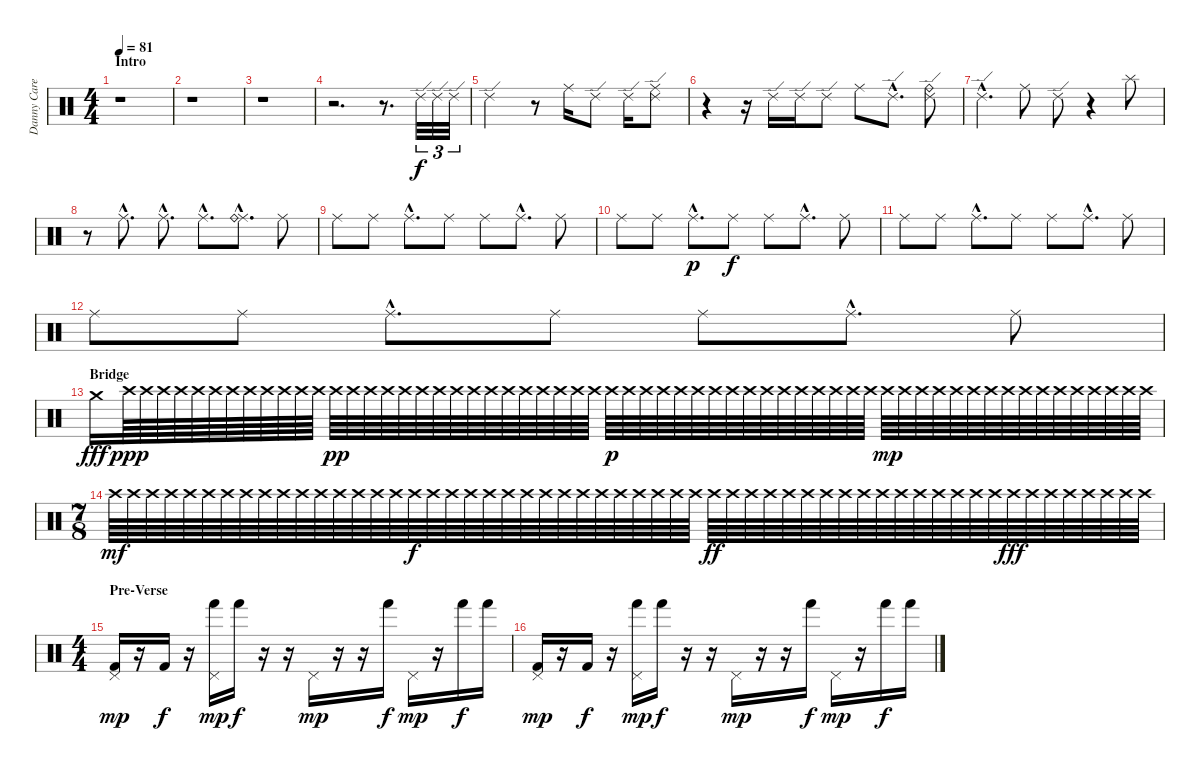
\track ("Danny Carey" "Danny Care") {instrument percussion}
\staff {score}
\articulation defaults
\ts (4 4)
\section ("" "Intro")
\tempo 81
\clef neutral
\ks c
r.1{dy f} |
r.1 |
r.1 |
r.2{d} r.8{d} "Ride (edge) 2".32{tu (3 2)} "Ride (edge) 2".32{tu (3 2)} "Ride (edge) 2".32{tu (3 2)} |
"Ride (edge) 2".2 r.8 "Ride (middle)".16 "Ride (edge) 2".8 "Ride (edge) 2".16 ("Ride (edge) 2" "Ride (middle)").8 |
r.4 r.16 "Ride (edge) 2".16 "Ride (edge) 2".16 "Ride (edge) 2".8 "Ride (middle)".8 "Ride (edge) 2"{hac}.8{d} ("Ride (edge) 2" "Ride (bell)").8 |
"Ride (edge) 2"{hac}.4{d} "Ride (middle)".8 "Ride (edge) 2".8 r.4 "Splash (hit)".8 |
r.8 "Ride (middle)"{hac}.8{d} "Ride (middle)"{hac}.8{d} "Ride (middle)"{hac}.8{d} ("Ride (middle)"{hac} "Ride (bell)"{hac}).8{d} "Ride (middle)".8 |
"Ride (middle)".8 "Ride (middle)".8 "Ride (middle)"{hac}.8{d} "Ride (middle)".8 "Ride (middle)".8 "Ride (middle)"{hac}.8{d} "Ride (middle)".8 |
"Ride (middle)".8 "Ride (middle)".8 "Ride (middle)"{hac}.8{d dy p} "Ride (middle)".8{dy f} "Ride (middle)".8 "Ride (middle)"{hac}.8{d} "Ride (middle)".8 |
"Ride (middle)".8 "Ride (middle)".8 "Ride (middle)"{hac}.8{d} "Ride (middle)".8 "Ride (middle)".8 "Ride (middle)"{hac}.8{d} "Ride (middle)".8 |
"Ride (middle)".8 "Ride (middle)".8 "Ride (middle)"{hac}.8{d} "Ride (middle)".8 "Ride (middle)".8 "Ride (middle)"{hac}.8{d} "Ride (middle)".8 |
\section ("" "Bridge")
"Crash medium (hit)".16{dy fff} "Crash high (hit)".64{dy ppp} "Crash high (hit)".64 "Crash high (hit)".64 "Crash high (hit)".64 "Crash high (hit)".64 "Crash high (hit)".64 "Crash high (hit)".64 "Crash high (hit)".64 "Crash high (hit)".64 "Crash high (hit)".64 "Crash high (hit)".64 "Crash high (hit)".64 "Crash high (hit)".64{dy pp} "Crash high (hit)".64 "Crash high (hit)".64 "Crash high (hit)".64 "Crash high (hit)".64 "Crash high (hit)".64 "Crash high (hit)".64 "Crash high (hit)".64 "Crash high (hit)".64 "Crash high (hit)".64 "Crash high (hit)".64 "Crash high (hit)".64 "Crash high (hit)".64 "Crash high (hit)".64 "Crash high (hit)".64 "Crash high (hit)".64 "Crash high (hit)".64{dy p} "Crash high (hit)".64 "Crash high (hit)".64 "Crash high (hit)".64 "Crash high (hit)".64 "Crash high (hit)".64 "Crash high (hit)".64 "Crash high (hit)".64 "Crash high (hit)".64 "Crash high (hit)".64 "Crash high (hit)".64 "Crash high (hit)".64 "Crash high (hit)".64 "Crash high (hit)".64 "Crash high (hit)".64 "Crash high (hit)".64 "Crash high (hit)".64{dy mp} "Crash high (hit)".64 "Crash high (hit)".64 "Crash high (hit)".64 "Crash high (hit)".64 "Crash high (hit)".64 "Crash high (hit)".64 "Crash high (hit)".64 "Crash high (hit)".64 "Crash high (hit)".64 "Crash high (hit)".64 "Crash high (hit)".64 "Crash high (hit)".64 "Crash high (hit)".64 "Crash high (hit)".64 "Crash high (hit)".64 |
\ts (7 8)
"Crash high (hit)".64{dy mf} "Crash high (hit)".64 "Crash high (hit)".64 "Crash high (hit)".64 "Crash high (hit)".64 "Crash high (hit)".64 "Crash high (hit)".64 "Crash high (hit)".64 "Crash high (hit)".64 "Crash high (hit)".64 "Crash high (hit)".64 "Crash high (hit)".64 "Crash high (hit)".64 "Crash high (hit)".64 "Crash high (hit)".64 "Crash high (hit)".64 "Crash high (hit)".64{dy f} "Crash high (hit)".64 "Crash high (hit)".64 "Crash high (hit)".64 "Crash high (hit)".64 "Crash high (hit)".64 "Crash high (hit)".64 "Crash high (hit)".64 "Crash high (hit)".64 "Crash high (hit)".64 "Crash high (hit)".64 "Crash high (hit)".64 "Crash high (hit)".64 "Crash high (hit)".64 "Crash high (hit)".64 "Crash high (hit)".64 "Crash high (hit)".64{dy ff} "Crash high (hit)".64 "Crash high (hit)".64 "Crash high (hit)".64 "Crash high (hit)".64 "Crash high (hit)".64 "Crash high (hit)".64 "Crash high (hit)".64 "Crash high (hit)".64 "Crash high (hit)".64 "Crash high (hit)".64 "Crash high (hit)".64 "Crash high (hit)".64 "Crash high (hit)".64 "Crash high (hit)".64 "Crash high (hit)".64 "Crash high (hit)".64{dy fff} "Crash high (hit)".64 "Crash high (hit)".64 "Crash high (hit)".64 "Crash high (hit)".64 "Crash high (hit)".64 "Crash high (hit)".64 "Crash high (hit)".64 |
\ts (4 4)
\section ("" "Pre-Verse")
("Pedal Hi-Hat (hit)" "Kick (hit) 2").16{dy mp} r.16 "Kick (hit) 2".16{dy f} r.16 ("Pedal Hi-Hat (hit)" "Hand (hit)").16{dy mp} "Hand (hit)".16{dy f} r.16 r.16 "Pedal Hi-Hat (hit)".16{dy mp} r.16 r.16 "Hand (hit)".16{dy f} "Pedal Hi-Hat (hit)".16{dy mp} r.16 "Hand (hit)".16{dy f} "Hand (hit)".16 |
("Pedal Hi-Hat (hit)" "Kick (hit) 2").16{dy mp} r.16 "Kick (hit) 2".16{dy f} r.16 ("Pedal Hi-Hat (hit)" "Hand (hit)").16{dy mp} "Hand (hit)".16{dy f} r.16 r.16 "Pedal Hi-Hat (hit)".16{dy mp} r.16 r.16 "Hand (hit)".16{dy f} "Pedal Hi-Hat (hit)".16{dy mp} r.16 "Hand (hit)".16{dy f} "Hand (hit)".16
